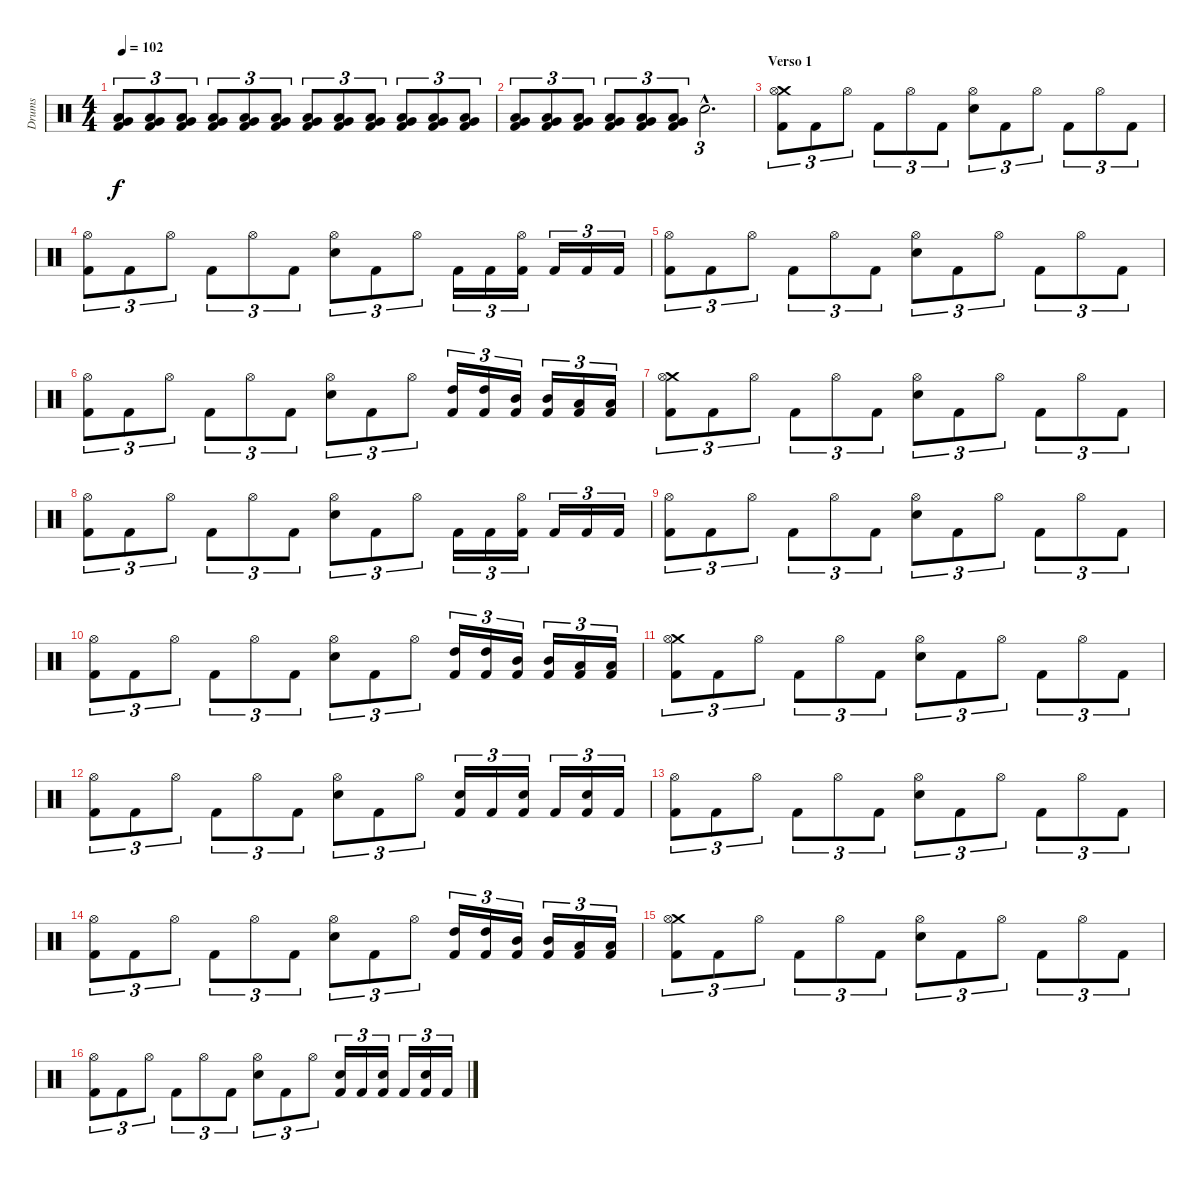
\track ("Drums" "Drums") {instrument percussion}
\staff {score}
\articulation defaults
\ts (4 4)
\tempo 102
\clef neutral
\ks c
("Very Low Tom (hit)" "Low Floor Tom (hit)" "Kick (hit) 2").8{tu (3 2) dy f} ("Very Low Tom (hit)" "Low Floor Tom (hit)" "Kick (hit) 2").8{tu (3 2)} ("Very Low Tom (hit)" "Low Floor Tom (hit)" "Kick (hit) 2").8{tu (3 2)} ("Very Low Tom (hit)" "Low Floor Tom (hit)" "Kick (hit) 2").8{tu (3 2)} ("Very Low Tom (hit)" "Low Floor Tom (hit)" "Kick (hit) 2").8{tu (3 2)} ("Very Low Tom (hit)" "Low Floor Tom (hit)" "Kick (hit) 2").8{tu (3 2)} ("Very Low Tom (hit)" "Low Floor Tom (hit)" "Kick (hit) 2").8{tu (3 2)} ("Very Low Tom (hit)" "Low Floor Tom (hit)" "Kick (hit) 2").8{tu (3 2)} ("Very Low Tom (hit)" "Low Floor Tom (hit)" "Kick (hit) 2").8{tu (3 2)} ("Very Low Tom (hit)" "Low Floor Tom (hit)" "Kick (hit) 2").8{tu (3 2)} ("Very Low Tom (hit)" "Low Floor Tom (hit)" "Kick (hit) 2").8{tu (3 2)} ("Very Low Tom (hit)" "Low Floor Tom (hit)" "Kick (hit) 2").8{tu (3 2)} |
("Very Low Tom (hit)" "Low Floor Tom (hit)" "Kick (hit) 2").8{tu (3 2)} ("Very Low Tom (hit)" "Low Floor Tom (hit)" "Kick (hit) 2").8{tu (3 2)} ("Very Low Tom (hit)" "Low Floor Tom (hit)" "Kick (hit) 2").8{tu (3 2)} ("Very Low Tom (hit)" "Low Floor Tom (hit)" "Kick (hit) 2").8{tu (3 2)} ("Very Low Tom (hit)" "Low Floor Tom (hit)" "Kick (hit) 2").8{tu (3 2)} ("Very Low Tom (hit)" "Low Floor Tom (hit)" "Kick (hit) 2").8{tu (3 2)} "Snare (hit) 2"{hac}.2{d tu (3 2)} |
\section ("" "Verso 1")
("Crash medium (hit)" "Hi-Hat (open)" "Kick (hit) 2").8{tu (3 2)} "Kick (hit) 2".8{tu (3 2)} "Hi-Hat (open)".8{tu (3 2)} "Kick (hit) 2".8{tu (3 2)} "Hi-Hat (open)".8{tu (3 2)} "Kick (hit) 2".8{tu (3 2)} ("Hi-Hat (open)" "Snare (hit) 2").8{tu (3 2)} "Kick (hit) 2".8{tu (3 2)} "Hi-Hat (open)".8{tu (3 2)} "Kick (hit) 2".8{tu (3 2)} "Hi-Hat (open)".8{tu (3 2)} "Kick (hit) 2".8{tu (3 2)} |
("Hi-Hat (open)" "Kick (hit) 2").8{tu (3 2)} "Kick (hit) 2".8{tu (3 2)} "Hi-Hat (open)".8{tu (3 2)} "Kick (hit) 2".8{tu (3 2)} "Hi-Hat (open)".8{tu (3 2)} "Kick (hit) 2".8{tu (3 2)} ("Hi-Hat (open)" "Snare (hit) 2").8{tu (3 2)} "Kick (hit) 2".8{tu (3 2)} "Hi-Hat (open)".8{tu (3 2)} "Kick (hit) 2".16{tu (3 2)} "Kick (hit) 2".16{tu (3 2)} ("Hi-Hat (open)" "Kick (hit) 2").16{tu (3 2)} "Kick (hit) 2".16{tu (3 2)} "Kick (hit) 2".16{tu (3 2)} "Kick (hit) 2".16{tu (3 2)} |
("Hi-Hat (open)" "Kick (hit) 2").8{tu (3 2)} "Kick (hit) 2".8{tu (3 2)} "Hi-Hat (open)".8{tu (3 2)} "Kick (hit) 2".8{tu (3 2)} "Hi-Hat (open)".8{tu (3 2)} "Kick (hit) 2".8{tu (3 2)} ("Hi-Hat (open)" "Snare (hit) 2").8{tu (3 2)} "Kick (hit) 2".8{tu (3 2)} "Hi-Hat (open)".8{tu (3 2)} "Kick (hit) 2".8{tu (3 2)} "Hi-Hat (open)".8{tu (3 2)} "Kick (hit) 2".8{tu (3 2)} |
("Hi-Hat (open)" "Kick (hit) 2").8{tu (3 2)} "Kick (hit) 2".8{tu (3 2)} "Hi-Hat (open)".8{tu (3 2)} "Kick (hit) 2".8{tu (3 2)} "Hi-Hat (open)".8{tu (3 2)} "Kick (hit) 2".8{tu (3 2)} ("Hi-Hat (open)" "Snare (hit) 2").8{tu (3 2)} "Kick (hit) 2".8{tu (3 2)} "Hi-Hat (open)".8{tu (3 2)} ("High Tom (hit)" "Kick (hit) 2").16{tu (3 2)} ("High Tom (hit)" "Kick (hit) 2").16{tu (3 2)} ("Mid Tom (hit)" "Kick (hit) 2").16{tu (3 2)} ("Mid Tom (hit)" "Kick (hit) 2").16{tu (3 2)} ("Low Tom (hit)" "Kick (hit) 2").16{tu (3 2)} ("Low Tom (hit)" "Kick (hit) 2").16{tu (3 2)} |
("Crash medium (hit)" "Hi-Hat (open)" "Kick (hit) 2").8{tu (3 2)} "Kick (hit) 2".8{tu (3 2)} "Hi-Hat (open)".8{tu (3 2)} "Kick (hit) 2".8{tu (3 2)} "Hi-Hat (open)".8{tu (3 2)} "Kick (hit) 2".8{tu (3 2)} ("Hi-Hat (open)" "Snare (hit) 2").8{tu (3 2)} "Kick (hit) 2".8{tu (3 2)} "Hi-Hat (open)".8{tu (3 2)} "Kick (hit) 2".8{tu (3 2)} "Hi-Hat (open)".8{tu (3 2)} "Kick (hit) 2".8{tu (3 2)} |
("Hi-Hat (open)" "Kick (hit) 2").8{tu (3 2)} "Kick (hit) 2".8{tu (3 2)} "Hi-Hat (open)".8{tu (3 2)} "Kick (hit) 2".8{tu (3 2)} "Hi-Hat (open)".8{tu (3 2)} "Kick (hit) 2".8{tu (3 2)} ("Hi-Hat (open)" "Snare (hit) 2").8{tu (3 2)} "Kick (hit) 2".8{tu (3 2)} "Hi-Hat (open)".8{tu (3 2)} "Kick (hit) 2".16{tu (3 2)} "Kick (hit) 2".16{tu (3 2)} ("Hi-Hat (open)" "Kick (hit) 2").16{tu (3 2)} "Kick (hit) 2".16{tu (3 2)} "Kick (hit) 2".16{tu (3 2)} "Kick (hit) 2".16{tu (3 2)} |
("Hi-Hat (open)" "Kick (hit) 2").8{tu (3 2)} "Kick (hit) 2".8{tu (3 2)} "Hi-Hat (open)".8{tu (3 2)} "Kick (hit) 2".8{tu (3 2)} "Hi-Hat (open)".8{tu (3 2)} "Kick (hit) 2".8{tu (3 2)} ("Hi-Hat (open)" "Snare (hit) 2").8{tu (3 2)} "Kick (hit) 2".8{tu (3 2)} "Hi-Hat (open)".8{tu (3 2)} "Kick (hit) 2".8{tu (3 2)} "Hi-Hat (open)".8{tu (3 2)} "Kick (hit) 2".8{tu (3 2)} |
("Hi-Hat (open)" "Kick (hit) 2").8{tu (3 2)} "Kick (hit) 2".8{tu (3 2)} "Hi-Hat (open)".8{tu (3 2)} "Kick (hit) 2".8{tu (3 2)} "Hi-Hat (open)".8{tu (3 2)} "Kick (hit) 2".8{tu (3 2)} ("Hi-Hat (open)" "Snare (hit) 2").8{tu (3 2)} "Kick (hit) 2".8{tu (3 2)} "Hi-Hat (open)".8{tu (3 2)} ("High Tom (hit)" "Kick (hit) 2").16{tu (3 2)} ("High Tom (hit)" "Kick (hit) 2").16{tu (3 2)} ("Mid Tom (hit)" "Kick (hit) 2").16{tu (3 2)} ("Mid Tom (hit)" "Kick (hit) 2").16{tu (3 2)} ("Low Tom (hit)" "Kick (hit) 2").16{tu (3 2)} ("Low Tom (hit)" "Kick (hit) 2").16{tu (3 2)} |
("Crash medium (hit)" "Hi-Hat (open)" "Kick (hit) 2").8{tu (3 2)} "Kick (hit) 2".8{tu (3 2)} "Hi-Hat (open)".8{tu (3 2)} "Kick (hit) 2".8{tu (3 2)} "Hi-Hat (open)".8{tu (3 2)} "Kick (hit) 2".8{tu (3 2)} ("Hi-Hat (open)" "Snare (hit) 2").8{tu (3 2)} "Kick (hit) 2".8{tu (3 2)} "Hi-Hat (open)".8{tu (3 2)} "Kick (hit) 2".8{tu (3 2)} "Hi-Hat (open)".8{tu (3 2)} "Kick (hit) 2".8{tu (3 2)} |
("Hi-Hat (open)" "Kick (hit) 2").8{tu (3 2)} "Kick (hit) 2".8{tu (3 2)} "Hi-Hat (open)".8{tu (3 2)} "Kick (hit) 2".8{tu (3 2)} "Hi-Hat (open)".8{tu (3 2)} "Kick (hit) 2".8{tu (3 2)} ("Hi-Hat (open)" "Snare (hit) 2").8{tu (3 2)} "Kick (hit) 2".8{tu (3 2)} "Hi-Hat (open)".8{tu (3 2)} ("Snare (hit) 2" "Kick (hit) 2").16{tu (3 2)} "Kick (hit) 2".16{tu (3 2)} ("Snare (hit) 2" "Kick (hit) 2").16{tu (3 2)} "Kick (hit) 2".16{tu (3 2)} ("Snare (hit) 2" "Kick (hit) 2").16{tu (3 2)} "Kick (hit) 2".16{tu (3 2)} |
("Hi-Hat (open)" "Kick (hit) 2").8{tu (3 2)} "Kick (hit) 2".8{tu (3 2)} "Hi-Hat (open)".8{tu (3 2)} "Kick (hit) 2".8{tu (3 2)} "Hi-Hat (open)".8{tu (3 2)} "Kick (hit) 2".8{tu (3 2)} ("Hi-Hat (open)" "Snare (hit) 2").8{tu (3 2)} "Kick (hit) 2".8{tu (3 2)} "Hi-Hat (open)".8{tu (3 2)} "Kick (hit) 2".8{tu (3 2)} "Hi-Hat (open)".8{tu (3 2)} "Kick (hit) 2".8{tu (3 2)} |
("Hi-Hat (open)" "Kick (hit) 2").8{tu (3 2)} "Kick (hit) 2".8{tu (3 2)} "Hi-Hat (open)".8{tu (3 2)} "Kick (hit) 2".8{tu (3 2)} "Hi-Hat (open)".8{tu (3 2)} "Kick (hit) 2".8{tu (3 2)} ("Hi-Hat (open)" "Snare (hit) 2").8{tu (3 2)} "Kick (hit) 2".8{tu (3 2)} "Hi-Hat (open)".8{tu (3 2)} ("High Tom (hit)" "Kick (hit) 2").16{tu (3 2)} ("High Tom (hit)" "Kick (hit) 2").16{tu (3 2)} ("Mid Tom (hit)" "Kick (hit) 2").16{tu (3 2)} ("Mid Tom (hit)" "Kick (hit) 2").16{tu (3 2)} ("Low Tom (hit)" "Kick (hit) 2").16{tu (3 2)} ("Low Tom (hit)" "Kick (hit) 2").16{tu (3 2)} |
("Crash medium (hit)" "Hi-Hat (open)" "Kick (hit) 2").8{tu (3 2)} "Kick (hit) 2".8{tu (3 2)} "Hi-Hat (open)".8{tu (3 2)} "Kick (hit) 2".8{tu (3 2)} "Hi-Hat (open)".8{tu (3 2)} "Kick (hit) 2".8{tu (3 2)} ("Hi-Hat (open)" "Snare (hit) 2").8{tu (3 2)} "Kick (hit) 2".8{tu (3 2)} "Hi-Hat (open)".8{tu (3 2)} "Kick (hit) 2".8{tu (3 2)} "Hi-Hat (open)".8{tu (3 2)} "Kick (hit) 2".8{tu (3 2)} |
("Hi-Hat (open)" "Kick (hit) 2").8{tu (3 2)} "Kick (hit) 2".8{tu (3 2)} "Hi-Hat (open)".8{tu (3 2)} "Kick (hit) 2".8{tu (3 2)} "Hi-Hat (open)".8{tu (3 2)} "Kick (hit) 2".8{tu (3 2)} ("Hi-Hat (open)" "Snare (hit) 2").8{tu (3 2)} "Kick (hit) 2".8{tu (3 2)} "Hi-Hat (open)".8{tu (3 2)} ("Snare (hit) 2" "Kick (hit) 2").16{tu (3 2)} "Kick (hit) 2".16{tu (3 2)} ("Snare (hit) 2" "Kick (hit) 2").16{tu (3 2)} "Kick (hit) 2".16{tu (3 2)} ("Snare (hit) 2" "Kick (hit) 2").16{tu (3 2)} "Kick (hit) 2".16{tu (3 2)}
